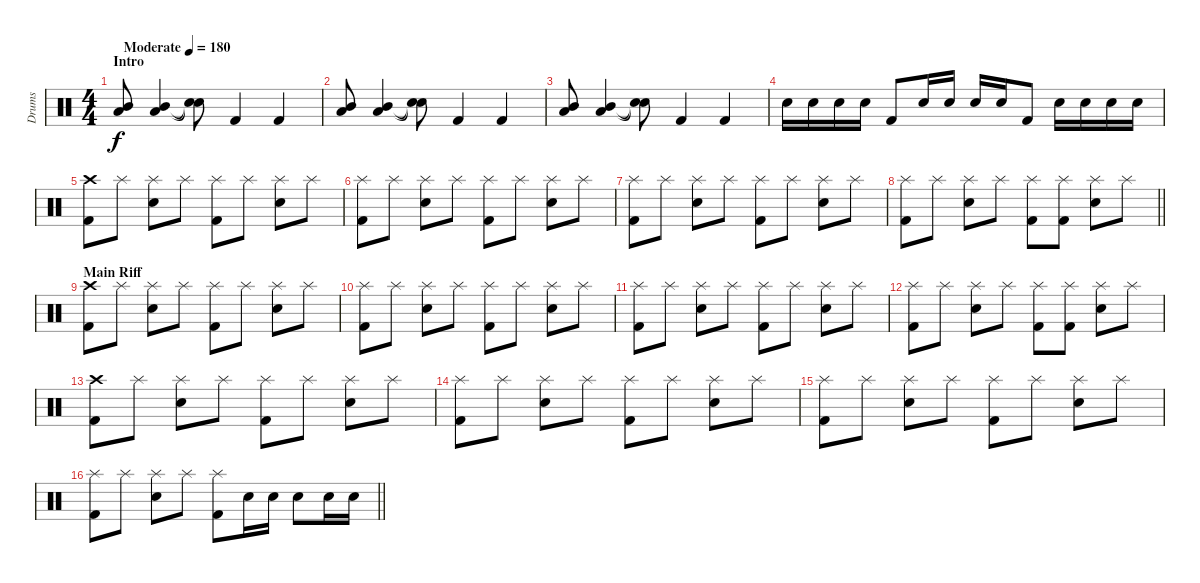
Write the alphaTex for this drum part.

\track ("Drums" "Drums") {instrument percussion}
\staff {score}
\articulation defaults
\ts (4 4)
\section ("" "Intro")
\tempo (180 "Moderate")
\clef neutral
\ks c
("Mid Tom (hit)" "Low Tom (hit)").8{dy f} ("Mid Tom (hit)" "Low Tom (hit)").4 ("Snare (hit)"{t} "Snare (hit)"{t}).8 "Kick (hit) 2".4 "Kick (hit) 2".4 |
("Mid Tom (hit)" "Low Tom (hit)").8 ("Mid Tom (hit)" "Low Tom (hit)").4 ("Snare (hit)"{t} "Snare (hit)"{t}).8 "Kick (hit) 2".4 "Kick (hit) 2".4 |
("Mid Tom (hit)" "Low Tom (hit)").8 ("Mid Tom (hit)" "Low Tom (hit)").4 ("Snare (hit)"{t} "Snare (hit)"{t}).8 "Kick (hit) 2".4 "Kick (hit) 2".4 |
"Snare (hit) 2".16 "Snare (hit) 2".16 "Snare (hit) 2".16 "Snare (hit) 2".16 "Kick (hit) 2".8 "Snare (hit) 2".16 "Snare (hit) 2".16 "Snare (hit) 2".16 "Snare (hit) 2".16 "Kick (hit) 2".8 "Snare (hit) 2".16 "Snare (hit) 2".16 "Snare (hit) 2".16 "Snare (hit) 2".16 |
("Crash high (hit)" "Kick (hit) 2").8 "Splash (hit)".8 ("Splash (hit)" "Snare (hit) 2").8 "Splash (hit)".8 ("Splash (hit)" "Kick (hit) 2").8 "Splash (hit)".8 ("Splash (hit)" "Snare (hit) 2").8 "Splash (hit)".8 |
("Splash (hit)" "Kick (hit) 2").8 "Splash (hit)".8 ("Splash (hit)" "Snare (hit) 2").8 "Splash (hit)".8 ("Splash (hit)" "Kick (hit) 2").8 "Splash (hit)".8 ("Splash (hit)" "Snare (hit) 2").8 "Splash (hit)".8 |
("Splash (hit)" "Kick (hit) 2").8 "Splash (hit)".8 ("Splash (hit)" "Snare (hit) 2").8 "Splash (hit)".8 ("Splash (hit)" "Kick (hit) 2").8 "Splash (hit)".8 ("Splash (hit)" "Snare (hit) 2").8 "Splash (hit)".8 |
\barLineRight lightlight
("Splash (hit)" "Kick (hit) 2").8 "Splash (hit)".8 ("Splash (hit)" "Snare (hit) 2").8 "Splash (hit)".8 ("Splash (hit)" "Kick (hit) 2").8 ("Splash (hit)" "Kick (hit) 2").8 ("Splash (hit)" "Snare (hit) 2").8 "Splash (hit)".8 |
\section ("" "Main Riff")
("Crash high (hit)" "Kick (hit) 2").8 "Splash (hit)".8 ("Splash (hit)" "Snare (hit) 2").8 "Splash (hit)".8 ("Splash (hit)" "Kick (hit) 2").8 "Splash (hit)".8 ("Splash (hit)" "Snare (hit) 2").8 "Splash (hit)".8 |
("Splash (hit)" "Kick (hit) 2").8 "Splash (hit)".8 ("Splash (hit)" "Snare (hit) 2").8 "Splash (hit)".8 ("Splash (hit)" "Kick (hit) 2").8 "Splash (hit)".8 ("Splash (hit)" "Snare (hit) 2").8 "Splash (hit)".8 |
("Splash (hit)" "Kick (hit) 2").8 "Splash (hit)".8 ("Splash (hit)" "Snare (hit) 2").8 "Splash (hit)".8 ("Splash (hit)" "Kick (hit) 2").8 "Splash (hit)".8 ("Splash (hit)" "Snare (hit) 2").8 "Splash (hit)".8 |
("Splash (hit)" "Kick (hit) 2").8 "Splash (hit)".8 ("Splash (hit)" "Snare (hit) 2").8 "Splash (hit)".8 ("Splash (hit)" "Kick (hit) 2").8 ("Splash (hit)" "Kick (hit) 2").8 ("Splash (hit)" "Snare (hit) 2").8 "Splash (hit)".8 |
("Crash high (hit)" "Kick (hit) 2").8 "Splash (hit)".8 ("Splash (hit)" "Snare (hit) 2").8 "Splash (hit)".8 ("Splash (hit)" "Kick (hit) 2").8 "Splash (hit)".8 ("Splash (hit)" "Snare (hit) 2").8 "Splash (hit)".8 |
("Splash (hit)" "Kick (hit) 2").8 "Splash (hit)".8 ("Splash (hit)" "Snare (hit) 2").8 "Splash (hit)".8 ("Splash (hit)" "Kick (hit) 2").8 "Splash (hit)".8 ("Splash (hit)" "Snare (hit) 2").8 "Splash (hit)".8 |
("Splash (hit)" "Kick (hit) 2").8 "Splash (hit)".8 ("Splash (hit)" "Snare (hit) 2").8 "Splash (hit)".8 ("Splash (hit)" "Kick (hit) 2").8 "Splash (hit)".8 ("Splash (hit)" "Snare (hit) 2").8 "Splash (hit)".8 |
\barLineRight lightlight
("Splash (hit)" "Kick (hit) 2").8 "Splash (hit)".8 ("Splash (hit)" "Snare (hit) 2").8 "Splash (hit)".8 ("Splash (hit)" "Kick (hit) 2").8 "Snare (hit) 2".16 "Snare (hit) 2".16 "Snare (hit) 2".8 "Snare (hit) 2".16 "Snare (hit) 2".16
